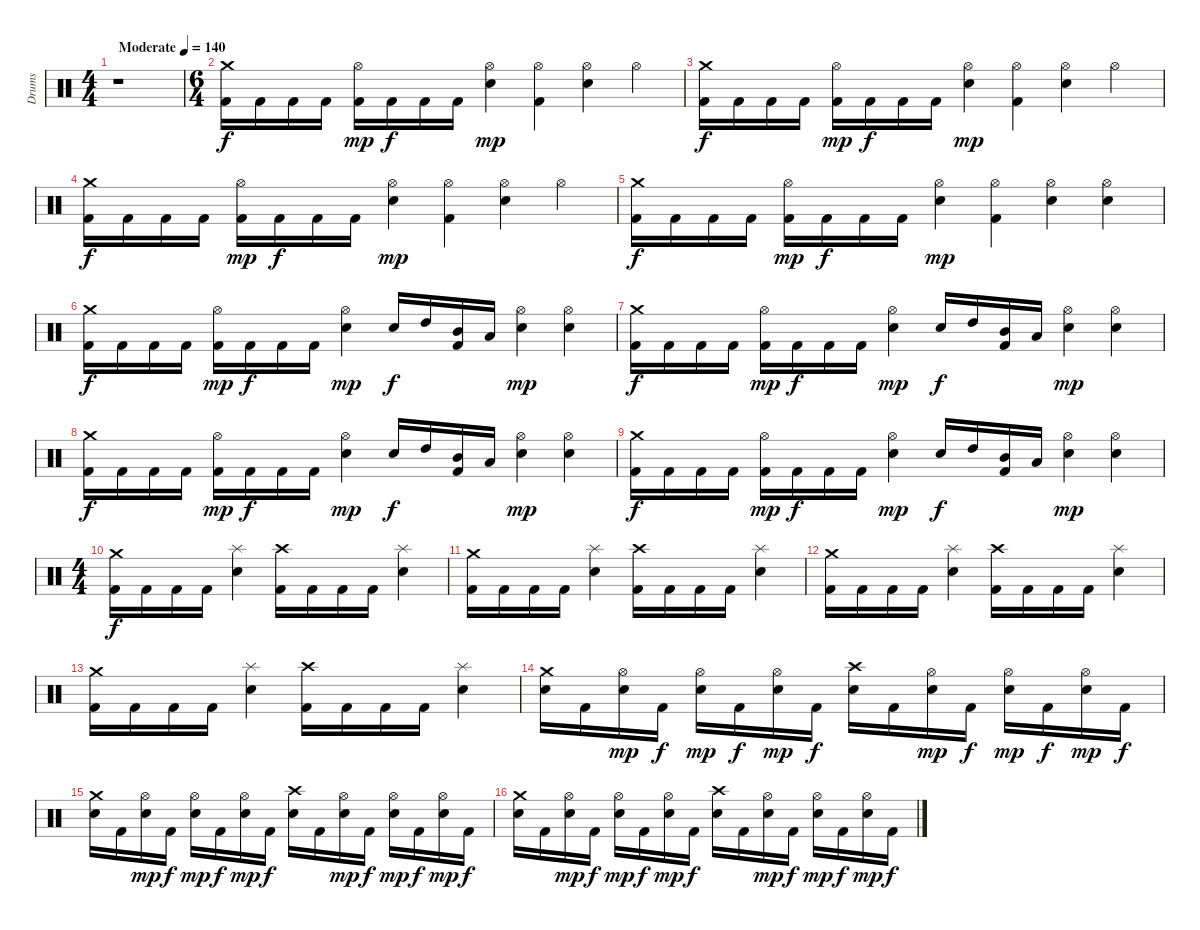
\track ("Drums" "Drums") {instrument percussion}
\staff {score}
\articulation defaults
\ts (4 4)
\tempo (140 "Moderate")
\clef neutral
\ks c
r.1{dy f} |
\ts (6 4)
("Crash medium (hit)" "Kick (hit) 2").16 "Kick (hit) 2".16 "Kick (hit) 2".16 "Kick (hit) 2".16 ("Hi-Hat (open)" "Kick (hit) 2").16{dy mp} "Kick (hit) 2".16{dy f} "Kick (hit) 2".16 "Kick (hit) 2".16 ("Hi-Hat (open)" "Snare (hit) 2").4{dy mp} ("Hi-Hat (open)" "Kick (hit) 2").4 ("Hi-Hat (open)" "Snare (hit) 2").4 "Hi-Hat (open)".4 |
("Crash medium (hit)" "Kick (hit) 2").16{dy f} "Kick (hit) 2".16 "Kick (hit) 2".16 "Kick (hit) 2".16 ("Hi-Hat (open)" "Kick (hit) 2").16{dy mp} "Kick (hit) 2".16{dy f} "Kick (hit) 2".16 "Kick (hit) 2".16 ("Hi-Hat (open)" "Snare (hit) 2").4{dy mp} ("Hi-Hat (open)" "Kick (hit) 2").4 ("Hi-Hat (open)" "Snare (hit) 2").4 "Hi-Hat (open)".4 |
("Crash medium (hit)" "Kick (hit) 2").16{dy f} "Kick (hit) 2".16 "Kick (hit) 2".16 "Kick (hit) 2".16 ("Hi-Hat (open)" "Kick (hit) 2").16{dy mp} "Kick (hit) 2".16{dy f} "Kick (hit) 2".16 "Kick (hit) 2".16 ("Hi-Hat (open)" "Snare (hit) 2").4{dy mp} ("Hi-Hat (open)" "Kick (hit) 2").4 ("Hi-Hat (open)" "Snare (hit) 2").4 "Hi-Hat (open)".4 |
("Crash medium (hit)" "Kick (hit) 2").16{dy f} "Kick (hit) 2".16 "Kick (hit) 2".16 "Kick (hit) 2".16 ("Hi-Hat (open)" "Kick (hit) 2").16{dy mp} "Kick (hit) 2".16{dy f} "Kick (hit) 2".16 "Kick (hit) 2".16 ("Hi-Hat (open)" "Snare (hit) 2").4{dy mp} ("Hi-Hat (open)" "Kick (hit) 2").4 ("Hi-Hat (open)" "Snare (hit) 2").4 ("Hi-Hat (open)" "Snare (hit) 2").4 |
("Crash medium (hit)" "Kick (hit) 2").16{dy f} "Kick (hit) 2".16 "Kick (hit) 2".16 "Kick (hit) 2".16 ("Hi-Hat (open)" "Kick (hit) 2").16{dy mp} "Kick (hit) 2".16{dy f} "Kick (hit) 2".16 "Kick (hit) 2".16 ("Hi-Hat (open)" "Snare (hit) 2").4{dy mp} "Snare (hit) 2".16{dy f} "High Tom (hit)".16 ("Mid Tom (hit)" "Kick (hit) 2").16 "Low Tom (hit)".16 ("Hi-Hat (open)" "Snare (hit) 2").4{dy mp} ("Hi-Hat (open)" "Snare (hit) 2").4 |
("Crash medium (hit)" "Kick (hit) 2").16{dy f} "Kick (hit) 2".16 "Kick (hit) 2".16 "Kick (hit) 2".16 ("Hi-Hat (open)" "Kick (hit) 2").16{dy mp} "Kick (hit) 2".16{dy f} "Kick (hit) 2".16 "Kick (hit) 2".16 ("Hi-Hat (open)" "Snare (hit) 2").4{dy mp} "Snare (hit) 2".16{dy f} "High Tom (hit)".16 ("Mid Tom (hit)" "Kick (hit) 2").16 "Low Tom (hit)".16 ("Hi-Hat (open)" "Snare (hit) 2").4{dy mp} ("Hi-Hat (open)" "Snare (hit) 2").4 |
("Crash medium (hit)" "Kick (hit) 2").16{dy f} "Kick (hit) 2".16 "Kick (hit) 2".16 "Kick (hit) 2".16 ("Hi-Hat (open)" "Kick (hit) 2").16{dy mp} "Kick (hit) 2".16{dy f} "Kick (hit) 2".16 "Kick (hit) 2".16 ("Hi-Hat (open)" "Snare (hit) 2").4{dy mp} "Snare (hit) 2".16{dy f} "High Tom (hit)".16 ("Mid Tom (hit)" "Kick (hit) 2").16 "Low Tom (hit)".16 ("Hi-Hat (open)" "Snare (hit) 2").4{dy mp} ("Hi-Hat (open)" "Snare (hit) 2").4 |
("Crash medium (hit)" "Kick (hit) 2").16{dy f} "Kick (hit) 2".16 "Kick (hit) 2".16 "Kick (hit) 2".16 ("Hi-Hat (open)" "Kick (hit) 2").16{dy mp} "Kick (hit) 2".16{dy f} "Kick (hit) 2".16 "Kick (hit) 2".16 ("Hi-Hat (open)" "Snare (hit) 2").4{dy mp} "Snare (hit) 2".16{dy f} "High Tom (hit)".16 ("Mid Tom (hit)" "Kick (hit) 2").16 "Low Tom (hit)".16 ("Hi-Hat (open)" "Snare (hit) 2").4{dy mp} ("Hi-Hat (open)" "Snare (hit) 2").4 |
\ts (4 4)
("Crash medium (hit)" "Kick (hit) 2").16{dy f} "Kick (hit) 2".16 "Kick (hit) 2".16 "Kick (hit) 2".16 ("Splash (hit)" "Snare (hit) 2").4 ("Crash high (hit)" "Kick (hit) 2").16 "Kick (hit) 2".16 "Kick (hit) 2".16 "Kick (hit) 2".16 ("Splash (hit)" "Snare (hit) 2").4 |
("Crash medium (hit)" "Kick (hit) 2").16 "Kick (hit) 2".16 "Kick (hit) 2".16 "Kick (hit) 2".16 ("Splash (hit)" "Snare (hit) 2").4 ("Crash high (hit)" "Kick (hit) 2").16 "Kick (hit) 2".16 "Kick (hit) 2".16 "Kick (hit) 2".16 ("Splash (hit)" "Snare (hit) 2").4 |
("Crash medium (hit)" "Kick (hit) 2").16 "Kick (hit) 2".16 "Kick (hit) 2".16 "Kick (hit) 2".16 ("Splash (hit)" "Snare (hit) 2").4 ("Crash high (hit)" "Kick (hit) 2").16 "Kick (hit) 2".16 "Kick (hit) 2".16 "Kick (hit) 2".16 ("Splash (hit)" "Snare (hit) 2").4 |
("Crash medium (hit)" "Kick (hit) 2").16 "Kick (hit) 2".16 "Kick (hit) 2".16 "Kick (hit) 2".16 ("Splash (hit)" "Snare (hit) 2").4 ("Crash high (hit)" "Kick (hit) 2").16 "Kick (hit) 2".16 "Kick (hit) 2".16 "Kick (hit) 2".16 ("Splash (hit)" "Snare (hit) 2").4 |
("Crash medium (hit)" "Snare (hit) 2").16 "Kick (hit) 2".16 ("Hi-Hat (open)" "Snare (hit) 2").16{dy mp} "Kick (hit) 2".16{dy f} ("Hi-Hat (open)" "Snare (hit) 2").16{dy mp} "Kick (hit) 2".16{dy f} ("Hi-Hat (open)" "Snare (hit) 2").16{dy mp} "Kick (hit) 2".16{dy f} ("Crash high (hit)" "Snare (hit) 2").16 "Kick (hit) 2".16 ("Hi-Hat (open)" "Snare (hit) 2").16{dy mp} "Kick (hit) 2".16{dy f} ("Hi-Hat (open)" "Snare (hit) 2").16{dy mp} "Kick (hit) 2".16{dy f} ("Hi-Hat (open)" "Snare (hit) 2").16{dy mp} "Kick (hit) 2".16{dy f} |
("Crash medium (hit)" "Snare (hit) 2").16 "Kick (hit) 2".16 ("Hi-Hat (open)" "Snare (hit) 2").16{dy mp} "Kick (hit) 2".16{dy f} ("Hi-Hat (open)" "Snare (hit) 2").16{dy mp} "Kick (hit) 2".16{dy f} ("Hi-Hat (open)" "Snare (hit) 2").16{dy mp} "Kick (hit) 2".16{dy f} ("Crash high (hit)" "Snare (hit) 2").16 "Kick (hit) 2".16 ("Hi-Hat (open)" "Snare (hit) 2").16{dy mp} "Kick (hit) 2".16{dy f} ("Hi-Hat (open)" "Snare (hit) 2").16{dy mp} "Kick (hit) 2".16{dy f} ("Hi-Hat (open)" "Snare (hit) 2").16{dy mp} "Kick (hit) 2".16{dy f} |
("Crash medium (hit)" "Snare (hit) 2").16 "Kick (hit) 2".16 ("Hi-Hat (open)" "Snare (hit) 2").16{dy mp} "Kick (hit) 2".16{dy f} ("Hi-Hat (open)" "Snare (hit) 2").16{dy mp} "Kick (hit) 2".16{dy f} ("Hi-Hat (open)" "Snare (hit) 2").16{dy mp} "Kick (hit) 2".16{dy f} ("Crash high (hit)" "Snare (hit) 2").16 "Kick (hit) 2".16 ("Hi-Hat (open)" "Snare (hit) 2").16{dy mp} "Kick (hit) 2".16{dy f} ("Hi-Hat (open)" "Snare (hit) 2").16{dy mp} "Kick (hit) 2".16{dy f} ("Hi-Hat (open)" "Snare (hit) 2").16{dy mp} "Kick (hit) 2".16{dy f}
